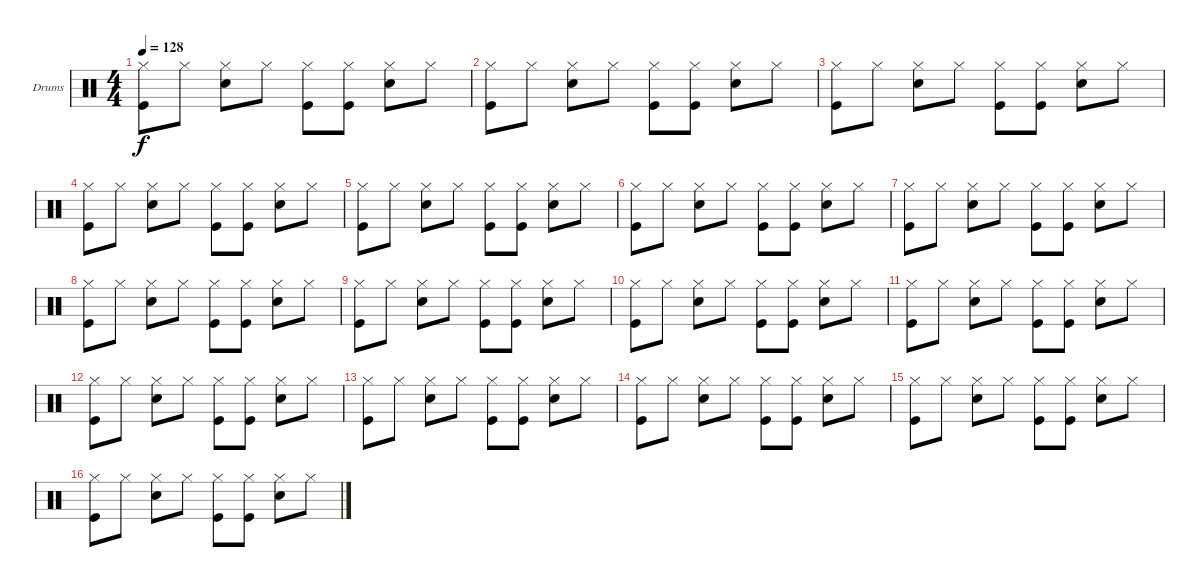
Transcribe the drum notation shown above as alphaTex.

\bracketExtendMode groupsimilarinstruments
\firstSystemTrackNameOrientation horizontal
\otherSystemsTrackNameOrientation horizontal
\track ("Drumkit" "Drums") {instrument percussion}
\staff {score}
\articulation defaults
\ts (4 4)
\tempo 128
\clef neutral
\ks c
("Hi-Hat (closed)" "Kick (hit)").8{dy f} "Hi-Hat (closed)".8 ("Hi-Hat (closed)" "Snare (hit) 2").8 "Hi-Hat (closed)".8 ("Hi-Hat (closed)" "Kick (hit)").8 ("Hi-Hat (closed)" "Kick (hit)").8 ("Hi-Hat (closed)" "Snare (hit) 2").8 "Hi-Hat (closed)".8 |
("Hi-Hat (closed)" "Kick (hit)").8 "Hi-Hat (closed)".8 ("Hi-Hat (closed)" "Snare (hit) 2").8 "Hi-Hat (closed)".8 ("Hi-Hat (closed)" "Kick (hit)").8 ("Hi-Hat (closed)" "Kick (hit)").8 ("Hi-Hat (closed)" "Snare (hit) 2").8 "Hi-Hat (closed)".8 |
("Hi-Hat (closed)" "Kick (hit)").8 "Hi-Hat (closed)".8 ("Hi-Hat (closed)" "Snare (hit) 2").8 "Hi-Hat (closed)".8 ("Hi-Hat (closed)" "Kick (hit)").8 ("Hi-Hat (closed)" "Kick (hit)").8 ("Hi-Hat (closed)" "Snare (hit) 2").8 "Hi-Hat (closed)".8 |
("Hi-Hat (closed)" "Kick (hit)").8 "Hi-Hat (closed)".8 ("Hi-Hat (closed)" "Snare (hit) 2").8 "Hi-Hat (closed)".8 ("Hi-Hat (closed)" "Kick (hit)").8 ("Hi-Hat (closed)" "Kick (hit)").8 ("Hi-Hat (closed)" "Snare (hit) 2").8 "Hi-Hat (closed)".8 |
("Hi-Hat (closed)" "Kick (hit)").8 "Hi-Hat (closed)".8 ("Hi-Hat (closed)" "Snare (hit) 2").8 "Hi-Hat (closed)".8 ("Hi-Hat (closed)" "Kick (hit)").8 ("Hi-Hat (closed)" "Kick (hit)").8 ("Hi-Hat (closed)" "Snare (hit) 2").8 "Hi-Hat (closed)".8 |
("Hi-Hat (closed)" "Kick (hit)").8 "Hi-Hat (closed)".8 ("Hi-Hat (closed)" "Snare (hit) 2").8 "Hi-Hat (closed)".8 ("Hi-Hat (closed)" "Kick (hit)").8 ("Hi-Hat (closed)" "Kick (hit)").8 ("Hi-Hat (closed)" "Snare (hit) 2").8 "Hi-Hat (closed)".8 |
("Hi-Hat (closed)" "Kick (hit)").8 "Hi-Hat (closed)".8 ("Hi-Hat (closed)" "Snare (hit) 2").8 "Hi-Hat (closed)".8 ("Hi-Hat (closed)" "Kick (hit)").8 ("Hi-Hat (closed)" "Kick (hit)").8 ("Hi-Hat (closed)" "Snare (hit) 2").8 "Hi-Hat (closed)".8 |
("Hi-Hat (closed)" "Kick (hit)").8 "Hi-Hat (closed)".8 ("Hi-Hat (closed)" "Snare (hit) 2").8 "Hi-Hat (closed)".8 ("Hi-Hat (closed)" "Kick (hit)").8 ("Hi-Hat (closed)" "Kick (hit)").8 ("Hi-Hat (closed)" "Snare (hit) 2").8 "Hi-Hat (closed)".8 |
("Hi-Hat (closed)" "Kick (hit)").8 "Hi-Hat (closed)".8 ("Hi-Hat (closed)" "Snare (hit) 2").8 "Hi-Hat (closed)".8 ("Hi-Hat (closed)" "Kick (hit)").8 ("Hi-Hat (closed)" "Kick (hit)").8 ("Hi-Hat (closed)" "Snare (hit) 2").8 "Hi-Hat (closed)".8 |
("Hi-Hat (closed)" "Kick (hit)").8 "Hi-Hat (closed)".8 ("Hi-Hat (closed)" "Snare (hit) 2").8 "Hi-Hat (closed)".8 ("Hi-Hat (closed)" "Kick (hit)").8 ("Hi-Hat (closed)" "Kick (hit)").8 ("Hi-Hat (closed)" "Snare (hit) 2").8 "Hi-Hat (closed)".8 |
("Hi-Hat (closed)" "Kick (hit)").8 "Hi-Hat (closed)".8 ("Hi-Hat (closed)" "Snare (hit) 2").8 "Hi-Hat (closed)".8 ("Hi-Hat (closed)" "Kick (hit)").8 ("Hi-Hat (closed)" "Kick (hit)").8 ("Hi-Hat (closed)" "Snare (hit) 2").8 "Hi-Hat (closed)".8 |
("Hi-Hat (closed)" "Kick (hit)").8 "Hi-Hat (closed)".8 ("Hi-Hat (closed)" "Snare (hit) 2").8 "Hi-Hat (closed)".8 ("Hi-Hat (closed)" "Kick (hit)").8 ("Hi-Hat (closed)" "Kick (hit)").8 ("Hi-Hat (closed)" "Snare (hit) 2").8 "Hi-Hat (closed)".8 |
("Hi-Hat (closed)" "Kick (hit)").8 "Hi-Hat (closed)".8 ("Hi-Hat (closed)" "Snare (hit) 2").8 "Hi-Hat (closed)".8 ("Hi-Hat (closed)" "Kick (hit)").8 ("Hi-Hat (closed)" "Kick (hit)").8 ("Hi-Hat (closed)" "Snare (hit) 2").8 "Hi-Hat (closed)".8 |
("Hi-Hat (closed)" "Kick (hit)").8 "Hi-Hat (closed)".8 ("Hi-Hat (closed)" "Snare (hit) 2").8 "Hi-Hat (closed)".8 ("Hi-Hat (closed)" "Kick (hit)").8 ("Hi-Hat (closed)" "Kick (hit)").8 ("Hi-Hat (closed)" "Snare (hit) 2").8 "Hi-Hat (closed)".8 |
("Hi-Hat (closed)" "Kick (hit)").8 "Hi-Hat (closed)".8 ("Hi-Hat (closed)" "Snare (hit) 2").8 "Hi-Hat (closed)".8 ("Hi-Hat (closed)" "Kick (hit)").8 ("Hi-Hat (closed)" "Kick (hit)").8 ("Hi-Hat (closed)" "Snare (hit) 2").8 "Hi-Hat (closed)".8 |
("Hi-Hat (closed)" "Kick (hit)").8 "Hi-Hat (closed)".8 ("Hi-Hat (closed)" "Snare (hit) 2").8 "Hi-Hat (closed)".8 ("Hi-Hat (closed)" "Kick (hit)").8 ("Hi-Hat (closed)" "Kick (hit)").8 ("Hi-Hat (closed)" "Snare (hit) 2").8 "Hi-Hat (closed)".8
